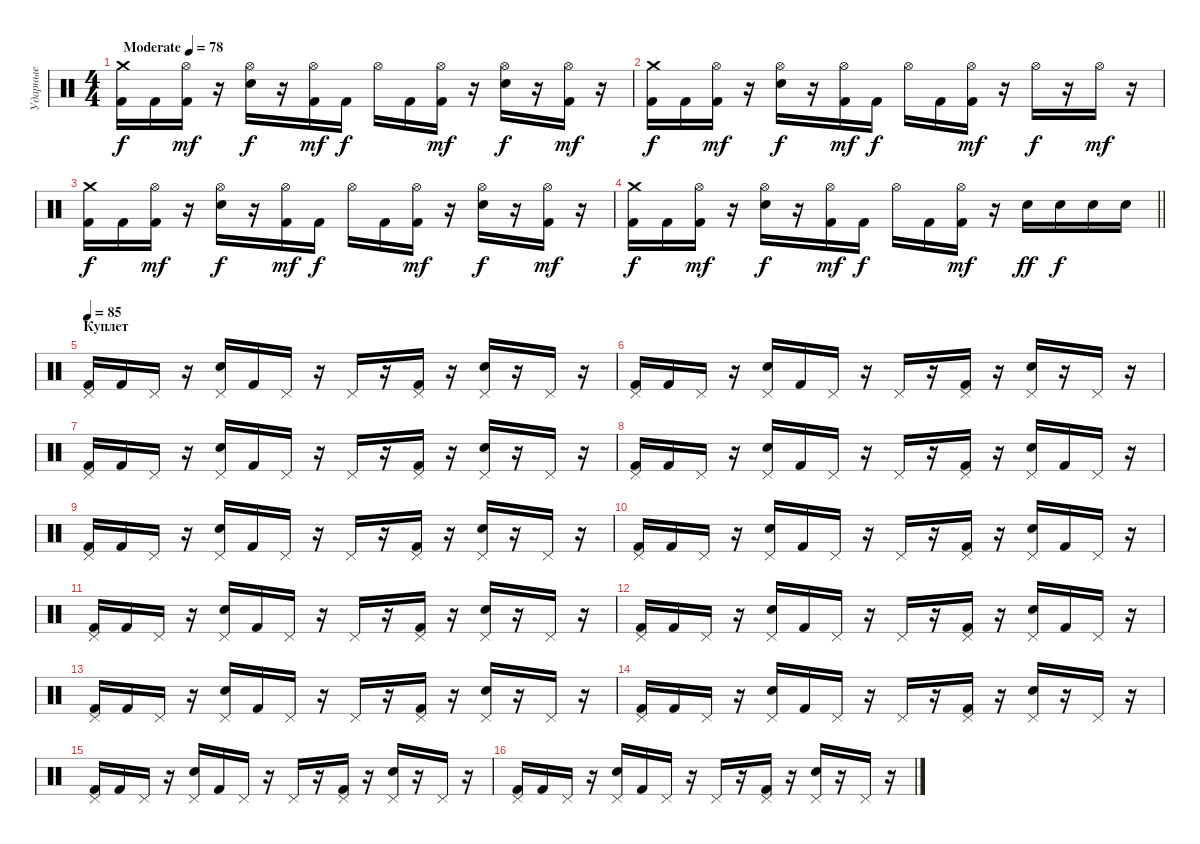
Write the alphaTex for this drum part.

\track ("Ударные" "Ударные") {instrument percussion}
\staff {score}
\articulation defaults
\ts (4 4)
\tempo (78 "Moderate")
\clef neutral
\ks c
("Crash medium (hit)" "Kick (hit) 2").16{dy f} "Kick (hit) 2".16 ("Hi-Hat (open)" "Kick (hit) 2").16{dy mf} r.16 ("Hi-Hat (open)" "Electric Snare (hit)").16{dy f} r.16 ("Hi-Hat (open)" "Kick (hit) 2").16{dy mf} "Kick (hit) 2".16{dy f} "Hi-Hat (open)".16 "Kick (hit) 2".16 ("Hi-Hat (open)" "Kick (hit) 2").16{dy mf} r.16 ("Hi-Hat (open)" "Electric Snare (hit)").16{dy f} r.16 ("Hi-Hat (open)" "Kick (hit) 2").16{dy mf} r.16 |
("Crash medium (hit)" "Kick (hit) 2").16{dy f} "Kick (hit) 2".16 ("Hi-Hat (open)" "Kick (hit) 2").16{dy mf} r.16 ("Hi-Hat (open)" "Electric Snare (hit)").16{dy f} r.16 ("Hi-Hat (open)" "Kick (hit) 2").16{dy mf} "Kick (hit) 2".16{dy f} "Hi-Hat (open)".16 "Kick (hit) 2".16 ("Hi-Hat (open)" "Kick (hit) 2").16{dy mf} r.16 "Hi-Hat (open)".16{dy f} r.16 "Hi-Hat (open)".16{dy mf} r.16 |
("Crash medium (hit)" "Kick (hit) 2").16{dy f} "Kick (hit) 2".16 ("Hi-Hat (open)" "Kick (hit) 2").16{dy mf} r.16 ("Hi-Hat (open)" "Electric Snare (hit)").16{dy f} r.16 ("Hi-Hat (open)" "Kick (hit) 2").16{dy mf} "Kick (hit) 2".16{dy f} "Hi-Hat (open)".16 "Kick (hit) 2".16 ("Hi-Hat (open)" "Kick (hit) 2").16{dy mf} r.16 ("Hi-Hat (open)" "Electric Snare (hit)").16{dy f} r.16 ("Hi-Hat (open)" "Kick (hit) 2").16{dy mf} r.16 |
\barLineRight lightlight
("Crash medium (hit)" "Kick (hit) 2").16{dy f} "Kick (hit) 2".16 ("Hi-Hat (open)" "Kick (hit) 2").16{dy mf} r.16 ("Hi-Hat (open)" "Electric Snare (hit)").16{dy f} r.16 ("Hi-Hat (open)" "Kick (hit) 2").16{dy mf} "Kick (hit) 2".16{dy f} "Hi-Hat (open)".16 "Kick (hit) 2".16 ("Hi-Hat (open)" "Kick (hit) 2").16{dy mf} r.16 "Electric Snare (hit)".16{dy ff} "Electric Snare (hit)".16{dy f} "Electric Snare (hit)".16 "Electric Snare (hit)".16 |
\section ("" "Куплет")
\tempo 85
("Pedal Hi-Hat (hit)" "Kick (hit) 2").16 "Kick (hit) 2".16 "Pedal Hi-Hat (hit)".16 r.16 ("Pedal Hi-Hat (hit)" "Electric Snare (hit)").16 "Kick (hit) 2".16 "Pedal Hi-Hat (hit)".16 r.16 "Pedal Hi-Hat (hit)".16 r.16 ("Pedal Hi-Hat (hit)" "Kick (hit) 2").16 r.16 ("Pedal Hi-Hat (hit)" "Electric Snare (hit)").16 r.16 "Pedal Hi-Hat (hit)".16 r.16 |
("Pedal Hi-Hat (hit)" "Kick (hit) 2").16 "Kick (hit) 2".16 "Pedal Hi-Hat (hit)".16 r.16 ("Pedal Hi-Hat (hit)" "Electric Snare (hit)").16 "Kick (hit) 2".16 "Pedal Hi-Hat (hit)".16 r.16 "Pedal Hi-Hat (hit)".16 r.16 ("Pedal Hi-Hat (hit)" "Kick (hit) 2").16 r.16 ("Pedal Hi-Hat (hit)" "Electric Snare (hit)").16 r.16 "Pedal Hi-Hat (hit)".16 r.16 |
("Pedal Hi-Hat (hit)" "Kick (hit) 2").16 "Kick (hit) 2".16 "Pedal Hi-Hat (hit)".16 r.16 ("Pedal Hi-Hat (hit)" "Electric Snare (hit)").16 "Kick (hit) 2".16 "Pedal Hi-Hat (hit)".16 r.16 "Pedal Hi-Hat (hit)".16 r.16 ("Pedal Hi-Hat (hit)" "Kick (hit) 2").16 r.16 ("Pedal Hi-Hat (hit)" "Electric Snare (hit)").16 r.16 "Pedal Hi-Hat (hit)".16 r.16 |
("Pedal Hi-Hat (hit)" "Kick (hit) 2").16 "Kick (hit) 2".16 "Pedal Hi-Hat (hit)".16 r.16 ("Pedal Hi-Hat (hit)" "Electric Snare (hit)").16 "Kick (hit) 2".16 "Pedal Hi-Hat (hit)".16 r.16 "Pedal Hi-Hat (hit)".16 r.16 ("Pedal Hi-Hat (hit)" "Kick (hit) 2").16 r.16 ("Pedal Hi-Hat (hit)" "Electric Snare (hit)").16 "Kick (hit) 2".16 "Pedal Hi-Hat (hit)".16 r.16 |
("Pedal Hi-Hat (hit)" "Kick (hit) 2").16 "Kick (hit) 2".16 "Pedal Hi-Hat (hit)".16 r.16 ("Pedal Hi-Hat (hit)" "Electric Snare (hit)").16 "Kick (hit) 2".16 "Pedal Hi-Hat (hit)".16 r.16 "Pedal Hi-Hat (hit)".16 r.16 ("Pedal Hi-Hat (hit)" "Kick (hit) 2").16 r.16 ("Pedal Hi-Hat (hit)" "Electric Snare (hit)").16 r.16 "Pedal Hi-Hat (hit)".16 r.16 |
("Pedal Hi-Hat (hit)" "Kick (hit) 2").16 "Kick (hit) 2".16 "Pedal Hi-Hat (hit)".16 r.16 ("Pedal Hi-Hat (hit)" "Electric Snare (hit)").16 "Kick (hit) 2".16 "Pedal Hi-Hat (hit)".16 r.16 "Pedal Hi-Hat (hit)".16 r.16 ("Pedal Hi-Hat (hit)" "Kick (hit) 2").16 r.16 ("Pedal Hi-Hat (hit)" "Electric Snare (hit)").16 "Kick (hit) 2".16 "Pedal Hi-Hat (hit)".16 r.16 |
("Pedal Hi-Hat (hit)" "Kick (hit) 2").16 "Kick (hit) 2".16 "Pedal Hi-Hat (hit)".16 r.16 ("Pedal Hi-Hat (hit)" "Electric Snare (hit)").16 "Kick (hit) 2".16 "Pedal Hi-Hat (hit)".16 r.16 "Pedal Hi-Hat (hit)".16 r.16 ("Pedal Hi-Hat (hit)" "Kick (hit) 2").16 r.16 ("Pedal Hi-Hat (hit)" "Electric Snare (hit)").16 r.16 "Pedal Hi-Hat (hit)".16 r.16 |
("Pedal Hi-Hat (hit)" "Kick (hit) 2").16 "Kick (hit) 2".16 "Pedal Hi-Hat (hit)".16 r.16 ("Pedal Hi-Hat (hit)" "Electric Snare (hit)").16 "Kick (hit) 2".16 "Pedal Hi-Hat (hit)".16 r.16 "Pedal Hi-Hat (hit)".16 r.16 ("Pedal Hi-Hat (hit)" "Kick (hit) 2").16 r.16 ("Pedal Hi-Hat (hit)" "Electric Snare (hit)").16 "Kick (hit) 2".16 "Pedal Hi-Hat (hit)".16 r.16 |
("Pedal Hi-Hat (hit)" "Kick (hit) 2").16 "Kick (hit) 2".16 "Pedal Hi-Hat (hit)".16 r.16 ("Pedal Hi-Hat (hit)" "Electric Snare (hit)").16 "Kick (hit) 2".16 "Pedal Hi-Hat (hit)".16 r.16 "Pedal Hi-Hat (hit)".16 r.16 ("Pedal Hi-Hat (hit)" "Kick (hit) 2").16 r.16 ("Pedal Hi-Hat (hit)" "Electric Snare (hit)").16 r.16 "Pedal Hi-Hat (hit)".16 r.16 |
("Pedal Hi-Hat (hit)" "Kick (hit) 2").16 "Kick (hit) 2".16 "Pedal Hi-Hat (hit)".16 r.16 ("Pedal Hi-Hat (hit)" "Electric Snare (hit)").16 "Kick (hit) 2".16 "Pedal Hi-Hat (hit)".16 r.16 "Pedal Hi-Hat (hit)".16 r.16 ("Pedal Hi-Hat (hit)" "Kick (hit) 2").16 r.16 ("Pedal Hi-Hat (hit)" "Electric Snare (hit)").16 r.16 "Pedal Hi-Hat (hit)".16 r.16 |
("Pedal Hi-Hat (hit)" "Kick (hit) 2").16 "Kick (hit) 2".16 "Pedal Hi-Hat (hit)".16 r.16 ("Pedal Hi-Hat (hit)" "Electric Snare (hit)").16 "Kick (hit) 2".16 "Pedal Hi-Hat (hit)".16 r.16 "Pedal Hi-Hat (hit)".16 r.16 ("Pedal Hi-Hat (hit)" "Kick (hit) 2").16 r.16 ("Pedal Hi-Hat (hit)" "Electric Snare (hit)").16 r.16 "Pedal Hi-Hat (hit)".16 r.16 |
("Pedal Hi-Hat (hit)" "Kick (hit) 2").16 "Kick (hit) 2".16 "Pedal Hi-Hat (hit)".16 r.16 ("Pedal Hi-Hat (hit)" "Electric Snare (hit)").16 "Kick (hit) 2".16 "Pedal Hi-Hat (hit)".16 r.16 "Pedal Hi-Hat (hit)".16 r.16 ("Pedal Hi-Hat (hit)" "Kick (hit) 2").16 r.16 ("Pedal Hi-Hat (hit)" "Electric Snare (hit)").16 r.16 "Pedal Hi-Hat (hit)".16 r.16
